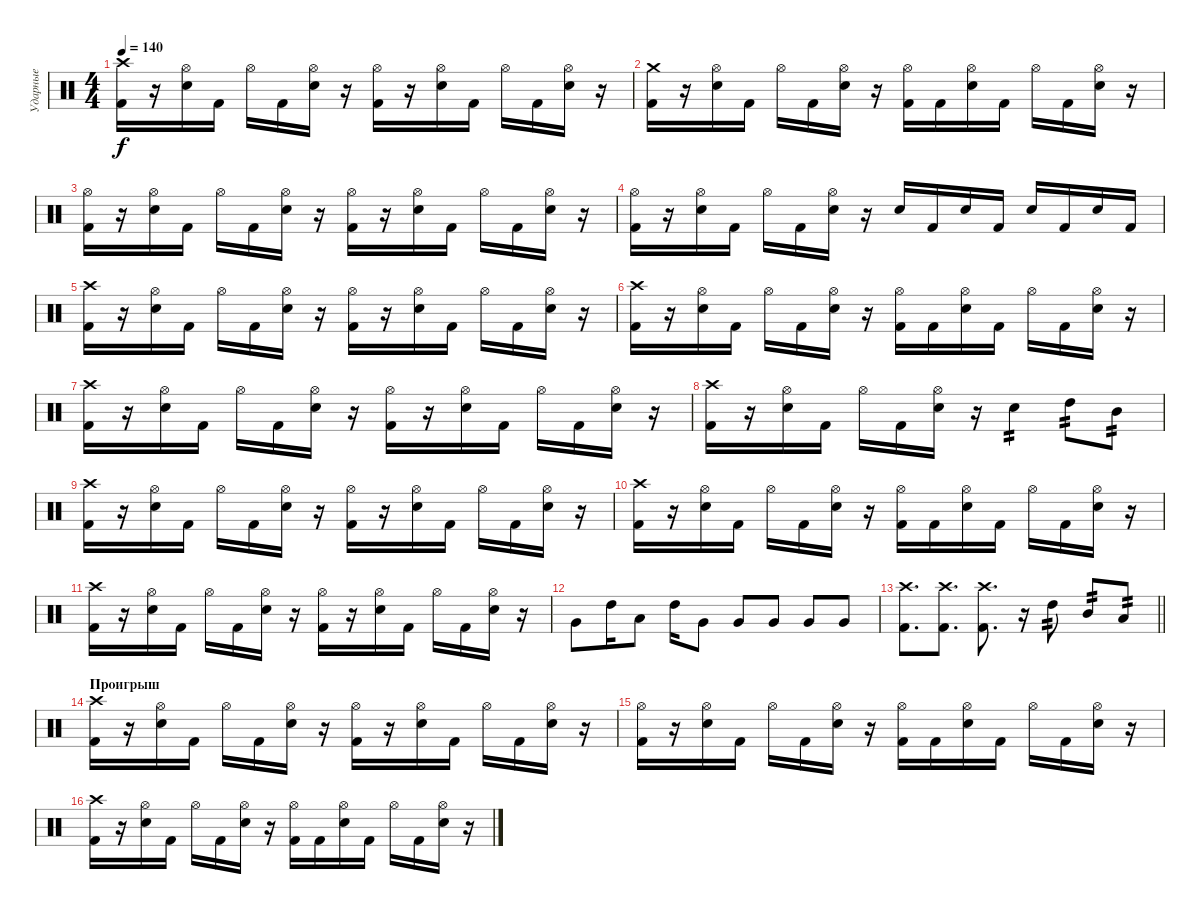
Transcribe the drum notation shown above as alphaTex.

\track ("Ударные" "Ударные") {instrument percussion}
\staff {score}
\articulation defaults
\ts (4 4)
\tempo 140
\clef neutral
\ks c
("Crash high (hit)" "Kick (hit) 2").16{dy f} r.16 ("Hi-Hat (open)" "Electric Snare (hit)").16 "Kick (hit) 2".16 "Hi-Hat (open)".16 "Kick (hit) 2".16 ("Hi-Hat (open)" "Electric Snare (hit)").16 r.16 ("Hi-Hat (open)" "Kick (hit) 2").16 r.16 ("Hi-Hat (open)" "Electric Snare (hit)").16 "Kick (hit) 2".16 "Hi-Hat (open)".16 "Kick (hit) 2".16 ("Hi-Hat (open)" "Electric Snare (hit)").16 r.16 |
("Crash medium (hit)" "Kick (hit) 2").16 r.16 ("Hi-Hat (open)" "Electric Snare (hit)").16 "Kick (hit) 2".16 "Hi-Hat (open)".16 "Kick (hit) 2".16 ("Hi-Hat (open)" "Electric Snare (hit)").16 r.16 ("Hi-Hat (open)" "Kick (hit) 2").16 "Kick (hit) 2".16 ("Hi-Hat (open)" "Electric Snare (hit)").16 "Kick (hit) 2".16 "Hi-Hat (open)".16 "Kick (hit) 2".16 ("Hi-Hat (open)" "Electric Snare (hit)").16 r.16 |
("Hi-Hat (open)" "Kick (hit) 2").16 r.16 ("Hi-Hat (open)" "Electric Snare (hit)").16 "Kick (hit) 2".16 "Hi-Hat (open)".16 "Kick (hit) 2".16 ("Hi-Hat (open)" "Electric Snare (hit)").16 r.16 ("Hi-Hat (open)" "Kick (hit) 2").16 r.16 ("Hi-Hat (open)" "Electric Snare (hit)").16 "Kick (hit) 2".16 "Hi-Hat (open)".16 "Kick (hit) 2".16 ("Hi-Hat (open)" "Electric Snare (hit)").16 r.16 |
("Hi-Hat (open)" "Kick (hit) 2").16 r.16 ("Hi-Hat (open)" "Electric Snare (hit)").16 "Kick (hit) 2".16 "Hi-Hat (open)".16 "Kick (hit) 2".16 ("Hi-Hat (open)" "Electric Snare (hit)").16 r.16 "Electric Snare (hit)".16 "Kick (hit) 2".16 "Electric Snare (hit)".16 "Kick (hit) 2".16 "Electric Snare (hit)".16 "Kick (hit) 2".16 "Electric Snare (hit)".16 "Kick (hit) 2".16 |
("Crash high (hit)" "Kick (hit) 2").16 r.16 ("Hi-Hat (open)" "Electric Snare (hit)").16 "Kick (hit) 2".16 "Hi-Hat (open)".16 "Kick (hit) 2".16 ("Hi-Hat (open)" "Electric Snare (hit)").16 r.16 ("Hi-Hat (open)" "Kick (hit) 2").16 r.16 ("Hi-Hat (open)" "Electric Snare (hit)").16 "Kick (hit) 2".16 "Hi-Hat (open)".16 "Kick (hit) 2".16 ("Hi-Hat (open)" "Electric Snare (hit)").16 r.16 |
("Crash high (hit)" "Kick (hit) 2").16 r.16 ("Hi-Hat (open)" "Electric Snare (hit)").16 "Kick (hit) 2".16 "Hi-Hat (open)".16 "Kick (hit) 2".16 ("Hi-Hat (open)" "Electric Snare (hit)").16 r.16 ("Hi-Hat (open)" "Kick (hit) 2").16 "Kick (hit) 2".16 ("Hi-Hat (open)" "Electric Snare (hit)").16 "Kick (hit) 2".16 "Hi-Hat (open)".16 "Kick (hit) 2".16 ("Hi-Hat (open)" "Electric Snare (hit)").16 r.16 |
("Crash high (hit)" "Kick (hit) 2").16 r.16 ("Hi-Hat (open)" "Electric Snare (hit)").16 "Kick (hit) 2".16 "Hi-Hat (open)".16 "Kick (hit) 2".16 ("Hi-Hat (open)" "Electric Snare (hit)").16 r.16 ("Hi-Hat (open)" "Kick (hit) 2").16 r.16 ("Hi-Hat (open)" "Electric Snare (hit)").16 "Kick (hit) 2".16 "Hi-Hat (open)".16 "Kick (hit) 2".16 ("Hi-Hat (open)" "Electric Snare (hit)").16 r.16 |
("Crash high (hit)" "Kick (hit) 2").16 r.16 ("Hi-Hat (open)" "Electric Snare (hit)").16 "Kick (hit) 2".16 "Hi-Hat (open)".16 "Kick (hit) 2".16 ("Hi-Hat (open)" "Electric Snare (hit)").16 r.16 "Electric Snare (hit)".4{tp 2} "High Tom (hit)".8{tp 2} "Mid Tom (hit)".8{tp 2} |
("Crash high (hit)" "Kick (hit) 2").16 r.16 ("Hi-Hat (open)" "Electric Snare (hit)").16 "Kick (hit) 2".16 "Hi-Hat (open)".16 "Kick (hit) 2".16 ("Hi-Hat (open)" "Electric Snare (hit)").16 r.16 ("Hi-Hat (open)" "Kick (hit) 2").16 r.16 ("Hi-Hat (open)" "Electric Snare (hit)").16 "Kick (hit) 2".16 "Hi-Hat (open)".16 "Kick (hit) 2".16 ("Hi-Hat (open)" "Electric Snare (hit)").16 r.16 |
("Crash high (hit)" "Kick (hit) 2").16 r.16 ("Hi-Hat (open)" "Electric Snare (hit)").16 "Kick (hit) 2".16 "Hi-Hat (open)".16 "Kick (hit) 2".16 ("Hi-Hat (open)" "Electric Snare (hit)").16 r.16 ("Hi-Hat (open)" "Kick (hit) 2").16 "Kick (hit) 2".16 ("Hi-Hat (open)" "Electric Snare (hit)").16 "Kick (hit) 2".16 "Hi-Hat (open)".16 "Kick (hit) 2".16 ("Hi-Hat (open)" "Electric Snare (hit)").16 r.16 |
("Crash high (hit)" "Kick (hit) 2").16 r.16 ("Hi-Hat (open)" "Electric Snare (hit)").16 "Kick (hit) 2".16 "Hi-Hat (open)".16 "Kick (hit) 2".16 ("Hi-Hat (open)" "Electric Snare (hit)").16 r.16 ("Hi-Hat (open)" "Kick (hit) 2").16 r.16 ("Hi-Hat (open)" "Electric Snare (hit)").16 "Kick (hit) 2".16 "Hi-Hat (open)".16 "Kick (hit) 2".16 ("Hi-Hat (open)" "Electric Snare (hit)").16 r.16 |
"Very Low Tom (hit)".8 "High Tom (hit)".16 "Low Tom (hit)".8 "High Tom (hit)".16 "Very Low Tom (hit)".8 "Very Low Tom (hit)".8 "Very Low Tom (hit)".8 "Very Low Tom (hit)".8 "Very Low Tom (hit)".8 |
\barLineRight lightlight
("Crash high (hit)" "Kick (hit) 2").8{d} ("Crash high (hit)" "Kick (hit) 2").8{d} ("Crash high (hit)" "Kick (hit) 2").8{d} r.16 "High Tom (hit)".8{tp 2} "Mid Tom (hit)".8{tp 2} "Low Tom (hit)".8{tp 2} |
\section ("" "Проигрыш")
("Crash high (hit)" "Kick (hit) 2").16 r.16 ("Hi-Hat (open)" "Electric Snare (hit)").16 "Kick (hit) 2".16 "Hi-Hat (open)".16 "Kick (hit) 2".16 ("Hi-Hat (open)" "Electric Snare (hit)").16 r.16 ("Hi-Hat (open)" "Kick (hit) 2").16 r.16 ("Hi-Hat (open)" "Electric Snare (hit)").16 "Kick (hit) 2".16 "Hi-Hat (open)".16 "Kick (hit) 2".16 ("Hi-Hat (open)" "Electric Snare (hit)").16 r.16 |
("Hi-Hat (open)" "Kick (hit) 2").16 r.16 ("Hi-Hat (open)" "Electric Snare (hit)").16 "Kick (hit) 2".16 "Hi-Hat (open)".16 "Kick (hit) 2".16 ("Hi-Hat (open)" "Electric Snare (hit)").16 r.16 ("Hi-Hat (open)" "Kick (hit) 2").16 "Kick (hit) 2".16 ("Hi-Hat (open)" "Electric Snare (hit)").16 "Kick (hit) 2".16 "Hi-Hat (open)".16 "Kick (hit) 2".16 ("Hi-Hat (open)" "Electric Snare (hit)").16 r.16 |
("Crash high (hit)" "Kick (hit) 2").16 r.16 ("Hi-Hat (open)" "Electric Snare (hit)").16 "Kick (hit) 2".16 "Hi-Hat (open)".16 "Kick (hit) 2".16 ("Hi-Hat (open)" "Electric Snare (hit)").16 r.16 ("Hi-Hat (open)" "Kick (hit) 2").16 "Kick (hit) 2".16 ("Hi-Hat (open)" "Electric Snare (hit)").16 "Kick (hit) 2".16 "Hi-Hat (open)".16 "Kick (hit) 2".16 ("Hi-Hat (open)" "Electric Snare (hit)").16 r.16
